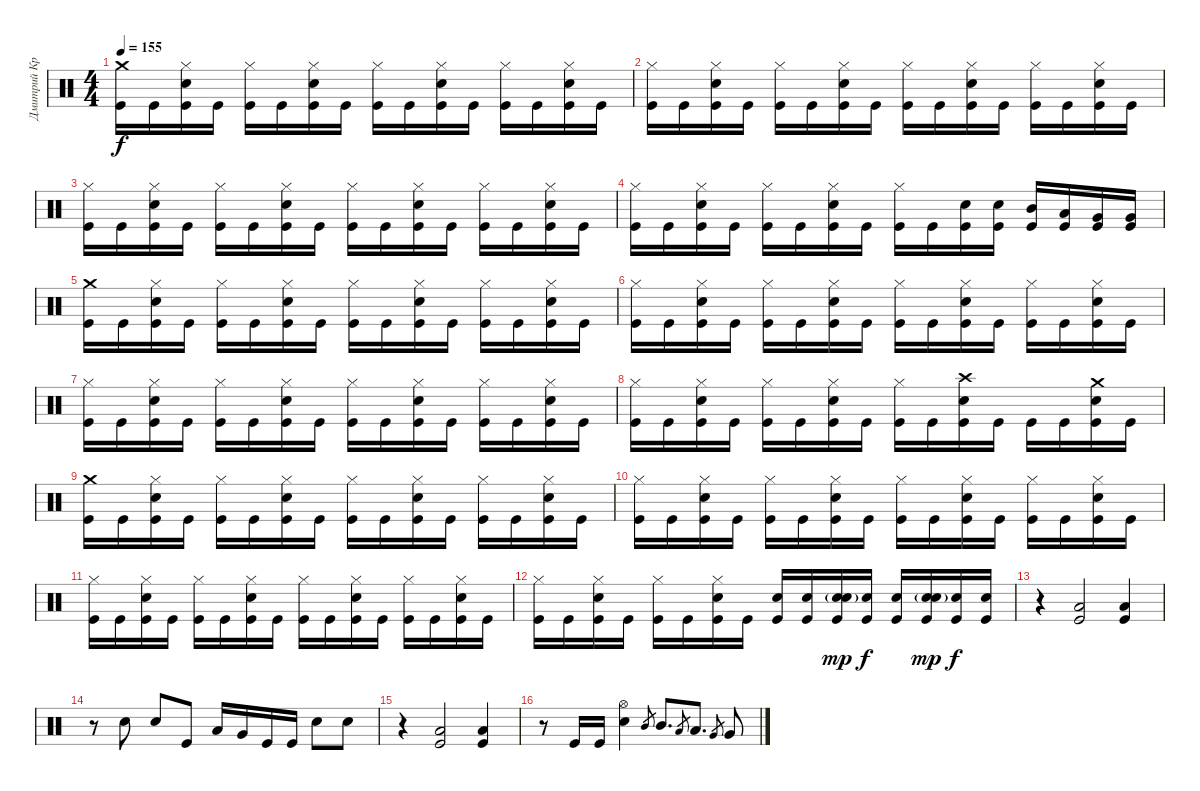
\track ("Дмитрий Кривенков" "Дмитрий Кр") {instrument percussion}
\staff {score}
\articulation defaults
\ts (4 4)
\tempo 155
\clef neutral
\ks c
("Crash medium (hit)" "Kick (hit)").16{dy f} "Kick (hit)".16 ("Hi-Hat (closed)" "Snare (hit) 2" "Kick (hit)").16 "Kick (hit)".16 ("Hi-Hat (closed)" "Kick (hit)").16 "Kick (hit)".16 ("Hi-Hat (closed)" "Snare (hit) 2" "Kick (hit)").16 "Kick (hit)".16 ("Hi-Hat (closed)" "Kick (hit)").16 "Kick (hit)".16 ("Hi-Hat (closed)" "Snare (hit) 2" "Kick (hit)").16 "Kick (hit)".16 ("Hi-Hat (closed)" "Kick (hit)").16 "Kick (hit)".16 ("Hi-Hat (closed)" "Snare (hit) 2" "Kick (hit)").16 "Kick (hit)".16 |
("Hi-Hat (closed)" "Kick (hit)").16 "Kick (hit)".16 ("Hi-Hat (closed)" "Snare (hit) 2" "Kick (hit)").16 "Kick (hit)".16 ("Hi-Hat (closed)" "Kick (hit)").16 "Kick (hit)".16 ("Hi-Hat (closed)" "Snare (hit) 2" "Kick (hit)").16 "Kick (hit)".16 ("Hi-Hat (closed)" "Kick (hit)").16 "Kick (hit)".16 ("Hi-Hat (closed)" "Snare (hit) 2" "Kick (hit)").16 "Kick (hit)".16 ("Hi-Hat (closed)" "Kick (hit)").16 "Kick (hit)".16 ("Hi-Hat (closed)" "Snare (hit) 2" "Kick (hit)").16 "Kick (hit)".16 |
("Hi-Hat (closed)" "Kick (hit)").16 "Kick (hit)".16 ("Hi-Hat (closed)" "Snare (hit) 2" "Kick (hit)").16 "Kick (hit)".16 ("Hi-Hat (closed)" "Kick (hit)").16 "Kick (hit)".16 ("Hi-Hat (closed)" "Snare (hit) 2" "Kick (hit)").16 "Kick (hit)".16 ("Hi-Hat (closed)" "Kick (hit)").16 "Kick (hit)".16 ("Hi-Hat (closed)" "Snare (hit) 2" "Kick (hit)").16 "Kick (hit)".16 ("Hi-Hat (closed)" "Kick (hit)").16 "Kick (hit)".16 ("Hi-Hat (closed)" "Snare (hit) 2" "Kick (hit)").16 "Kick (hit)".16 |
("Hi-Hat (closed)" "Kick (hit)").16 "Kick (hit)".16 ("Hi-Hat (closed)" "Snare (hit) 2" "Kick (hit)").16 "Kick (hit)".16 ("Hi-Hat (closed)" "Kick (hit)").16 "Kick (hit)".16 ("Hi-Hat (closed)" "Snare (hit) 2" "Kick (hit)").16 "Kick (hit)".16 ("Hi-Hat (closed)" "Kick (hit)").16 "Kick (hit)".16 ("Snare (hit) 2" "Kick (hit)").16 ("Snare (hit) 2" "Kick (hit)").16 ("Mid Tom (hit)" "Kick (hit)").16 ("Low Tom (hit)" "Kick (hit)").16 ("Very Low Tom (hit)" "Kick (hit)").16 ("Very Low Tom (hit)" "Kick (hit)").16 |
("Crash medium (hit)" "Kick (hit)").16 "Kick (hit)".16 ("Hi-Hat (closed)" "Snare (hit) 2" "Kick (hit)").16 "Kick (hit)".16 ("Hi-Hat (closed)" "Kick (hit)").16 "Kick (hit)".16 ("Hi-Hat (closed)" "Snare (hit) 2" "Kick (hit)").16 "Kick (hit)".16 ("Hi-Hat (closed)" "Kick (hit)").16 "Kick (hit)".16 ("Hi-Hat (closed)" "Snare (hit) 2" "Kick (hit)").16 "Kick (hit)".16 ("Hi-Hat (closed)" "Kick (hit)").16 "Kick (hit)".16 ("Hi-Hat (closed)" "Snare (hit) 2" "Kick (hit)").16 "Kick (hit)".16 |
("Hi-Hat (closed)" "Kick (hit)").16 "Kick (hit)".16 ("Hi-Hat (closed)" "Snare (hit) 2" "Kick (hit)").16 "Kick (hit)".16 ("Hi-Hat (closed)" "Kick (hit)").16 "Kick (hit)".16 ("Hi-Hat (closed)" "Snare (hit) 2" "Kick (hit)").16 "Kick (hit)".16 ("Hi-Hat (closed)" "Kick (hit)").16 "Kick (hit)".16 ("Hi-Hat (closed)" "Snare (hit) 2" "Kick (hit)").16 "Kick (hit)".16 ("Hi-Hat (closed)" "Kick (hit)").16 "Kick (hit)".16 ("Hi-Hat (closed)" "Snare (hit) 2" "Kick (hit)").16 "Kick (hit)".16 |
("Hi-Hat (closed)" "Kick (hit)").16 "Kick (hit)".16 ("Hi-Hat (closed)" "Snare (hit) 2" "Kick (hit)").16 "Kick (hit)".16 ("Hi-Hat (closed)" "Kick (hit)").16 "Kick (hit)".16 ("Hi-Hat (closed)" "Snare (hit) 2" "Kick (hit)").16 "Kick (hit)".16 ("Hi-Hat (closed)" "Kick (hit)").16 "Kick (hit)".16 ("Hi-Hat (closed)" "Snare (hit) 2" "Kick (hit)").16 "Kick (hit)".16 ("Hi-Hat (closed)" "Kick (hit)").16 "Kick (hit)".16 ("Hi-Hat (closed)" "Snare (hit) 2" "Kick (hit)").16 "Kick (hit)".16 |
("Hi-Hat (closed)" "Kick (hit)").16 "Kick (hit)".16 ("Hi-Hat (closed)" "Snare (hit) 2" "Kick (hit)").16 "Kick (hit)".16 ("Hi-Hat (closed)" "Kick (hit)").16 "Kick (hit)".16 ("Hi-Hat (closed)" "Snare (hit) 2" "Kick (hit)").16 "Kick (hit)".16 ("Hi-Hat (closed)" "Kick (hit)").16 "Kick (hit)".16 ("Crash high (hit)" "Snare (hit) 2" "Kick (hit)").16 "Kick (hit)".16 "Kick (hit)".16 "Kick (hit)".16 ("Crash medium (hit)" "Snare (hit) 2" "Kick (hit)").16 "Kick (hit)".16 |
("Crash medium (hit)" "Kick (hit)").16 "Kick (hit)".16 ("Snare (hit) 2" "Hi-Hat (closed)" "Kick (hit)").16 "Kick (hit)".16 ("Hi-Hat (closed)" "Kick (hit)").16 "Kick (hit)".16 ("Snare (hit) 2" "Hi-Hat (closed)" "Kick (hit)").16 "Kick (hit)".16 ("Hi-Hat (closed)" "Kick (hit)").16 "Kick (hit)".16 ("Snare (hit) 2" "Hi-Hat (closed)" "Kick (hit)").16 "Kick (hit)".16 ("Hi-Hat (closed)" "Kick (hit)").16 "Kick (hit)".16 ("Snare (hit) 2" "Hi-Hat (closed)" "Kick (hit)").16 "Kick (hit)".16 |
("Hi-Hat (closed)" "Kick (hit)").16 "Kick (hit)".16 ("Snare (hit) 2" "Hi-Hat (closed)" "Kick (hit)").16 "Kick (hit)".16 ("Hi-Hat (closed)" "Kick (hit)").16 "Kick (hit)".16 ("Snare (hit) 2" "Hi-Hat (closed)" "Kick (hit)").16 "Kick (hit)".16 ("Hi-Hat (closed)" "Kick (hit)").16 "Kick (hit)".16 ("Snare (hit) 2" "Hi-Hat (closed)" "Kick (hit)").16 "Kick (hit)".16 ("Hi-Hat (closed)" "Kick (hit)").16 "Kick (hit)".16 ("Snare (hit) 2" "Hi-Hat (closed)" "Kick (hit)").16 "Kick (hit)".16 |
("Hi-Hat (closed)" "Kick (hit)").16 "Kick (hit)".16 ("Hi-Hat (closed)" "Snare (hit) 2" "Kick (hit)").16 "Kick (hit)".16 ("Hi-Hat (closed)" "Kick (hit)").16 "Kick (hit)".16 ("Hi-Hat (closed)" "Snare (hit) 2" "Kick (hit)").16 "Kick (hit)".16 ("Hi-Hat (closed)" "Kick (hit)").16 "Kick (hit)".16 ("Hi-Hat (closed)" "Snare (hit) 2" "Kick (hit)").16 "Kick (hit)".16 ("Hi-Hat (closed)" "Kick (hit)").16 "Kick (hit)".16 ("Hi-Hat (closed)" "Snare (hit) 2" "Kick (hit)").16 "Kick (hit)".16 |
("Hi-Hat (closed)" "Kick (hit)").16 "Kick (hit)".16 ("Hi-Hat (closed)" "Snare (hit) 2" "Kick (hit)").16 "Kick (hit)".16 ("Hi-Hat (closed)" "Kick (hit)").16 "Kick (hit)".16 ("Hi-Hat (closed)" "Snare (hit) 2" "Kick (hit)").16 "Kick (hit)".16 ("Snare (hit) 2" "Kick (hit)").16 ("Snare (hit) 2" "Kick (hit)").16 ("Snare (hit) 2"{g} "Snare (hit) 2" "Kick (hit)").16{dy mp} ("Snare (hit) 2" "Kick (hit)").16{dy f} ("Snare (hit) 2" "Kick (hit)").16 ("Snare (hit) 2"{g} "Snare (hit) 2" "Kick (hit)").16{dy mp} ("Snare (hit) 2" "Kick (hit)").16{dy f} ("Snare (hit) 2" "Kick (hit)").16 |
r.4 ("Low Tom (hit)" "Kick (hit)").2 ("Low Tom (hit)" "Kick (hit)").4 |
r.8 "Snare (hit) 2".8 "Snare (hit) 2".8 "Kick (hit)".8 "Low Tom (hit)".16 "Very Low Tom (hit)".16 "Kick (hit)".16 "Kick (hit)".16 "Snare (hit) 2".8 "Snare (hit) 2".8 |
r.4 ("Low Tom (hit)" "Kick (hit)").2 ("Low Tom (hit)" "Kick (hit)").4 |
r.8 "Kick (hit)".16 "Kick (hit)".16 ("Hi-Hat (open)" "Snare (hit) 2").4 "Mid Tom (hit)".8{gr} "Mid Tom (hit)".8{d} "Low Tom (hit)".8{gr} "Low Tom (hit)".8{d} "Very Low Tom (hit)".8{gr} "Very Low Tom (hit)".8
